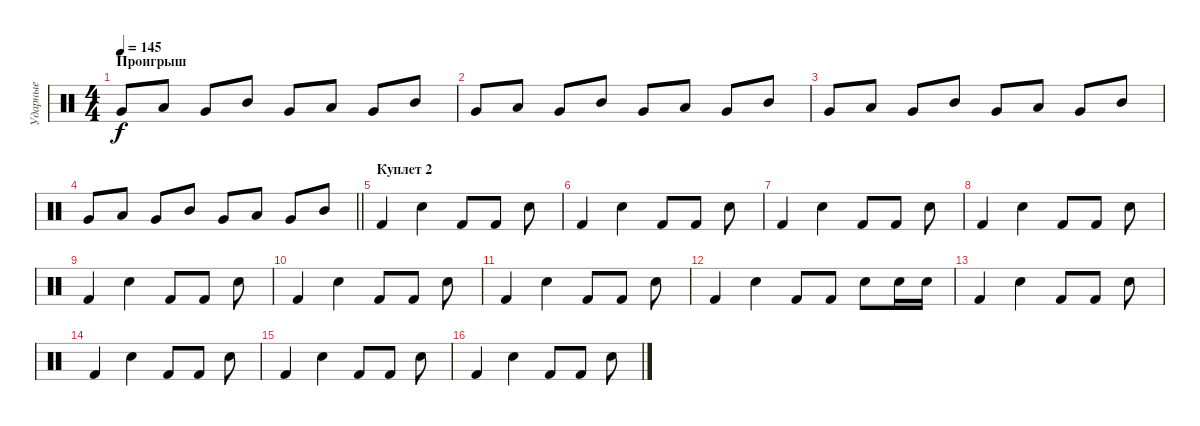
\track ("Ударные" "Ударные") {instrument percussion}
\staff {score}
\articulation defaults
\ts (4 4)
\section ("" "Проигрыш")
\tempo 145
\clef neutral
\ks c "Very Low Tom (hit)".8{dy f} "Low Tom (hit)".8 "Very Low Tom (hit)".8 "Mid Tom (hit)".8 "Very Low Tom (hit)".8 "Low Tom (hit)".8 "Very Low Tom (hit)".8 "Mid Tom (hit)".8
|
"Very Low Tom (hit)".8 "Low Tom (hit)".8 "Very Low Tom (hit)".8 "Mid Tom (hit)".8 "Very Low Tom (hit)".8 "Low Tom (hit)".8 "Very Low Tom (hit)".8 "Mid Tom (hit)".8 |
"Very Low Tom (hit)".8 "Low Tom (hit)".8 "Very Low Tom (hit)".8 "Mid Tom (hit)".8 "Very Low Tom (hit)".8 "Low Tom (hit)".8 "Very Low Tom (hit)".8 "Mid Tom (hit)".8 |
\barLineRight lightlight "Very Low Tom (hit)".8 "Low Tom (hit)".8 "Very Low Tom (hit)".8 "Mid Tom (hit)".8 "Very Low Tom (hit)".8 "Low Tom (hit)".8 "Very Low Tom (hit)".8 "Mid Tom (hit)".8
|
\section ("" "Куплет 2")
"Kick (hit) 2".4 "Snare (hit) 2".4 "Kick (hit) 2".8 "Kick (hit) 2".8 "Snare (hit) 2".8 |
"Kick (hit) 2".4 "Snare (hit) 2".4 "Kick (hit) 2".8 "Kick (hit) 2".8 "Snare (hit) 2".8 |
"Kick (hit) 2".4 "Snare (hit) 2".4 "Kick (hit) 2".8 "Kick (hit) 2".8 "Snare (hit) 2".8 |
"Kick (hit) 2".4 "Snare (hit) 2".4 "Kick (hit) 2".8 "Kick (hit) 2".8 "Snare (hit) 2".8 |
"Kick (hit) 2".4 "Snare (hit) 2".4 "Kick (hit) 2".8 "Kick (hit) 2".8 "Snare (hit) 2".8 |
"Kick (hit) 2".4 "Snare (hit) 2".4 "Kick (hit) 2".8 "Kick (hit) 2".8 "Snare (hit) 2".8 |
"Kick (hit) 2".4 "Snare (hit) 2".4 "Kick (hit) 2".8 "Kick (hit) 2".8 "Snare (hit) 2".8 |
"Kick (hit) 2".4 "Snare (hit) 2".4 "Kick (hit) 2".8 "Kick (hit) 2".8 "Snare (hit) 2".8 "Snare (hit) 2".16 "Snare (hit) 2".16 |
"Kick (hit) 2".4 "Snare (hit) 2".4 "Kick (hit) 2".8 "Kick (hit) 2".8 "Snare (hit) 2".8 |
"Kick (hit) 2".4 "Snare (hit) 2".4 "Kick (hit) 2".8 "Kick (hit) 2".8 "Snare (hit) 2".8 |
"Kick (hit) 2".4 "Snare (hit) 2".4 "Kick (hit) 2".8 "Kick (hit) 2".8 "Snare (hit) 2".8 |
"Kick (hit) 2".4 "Snare (hit) 2".4 "Kick (hit) 2".8 "Kick (hit) 2".8 "Snare (hit) 2".8
